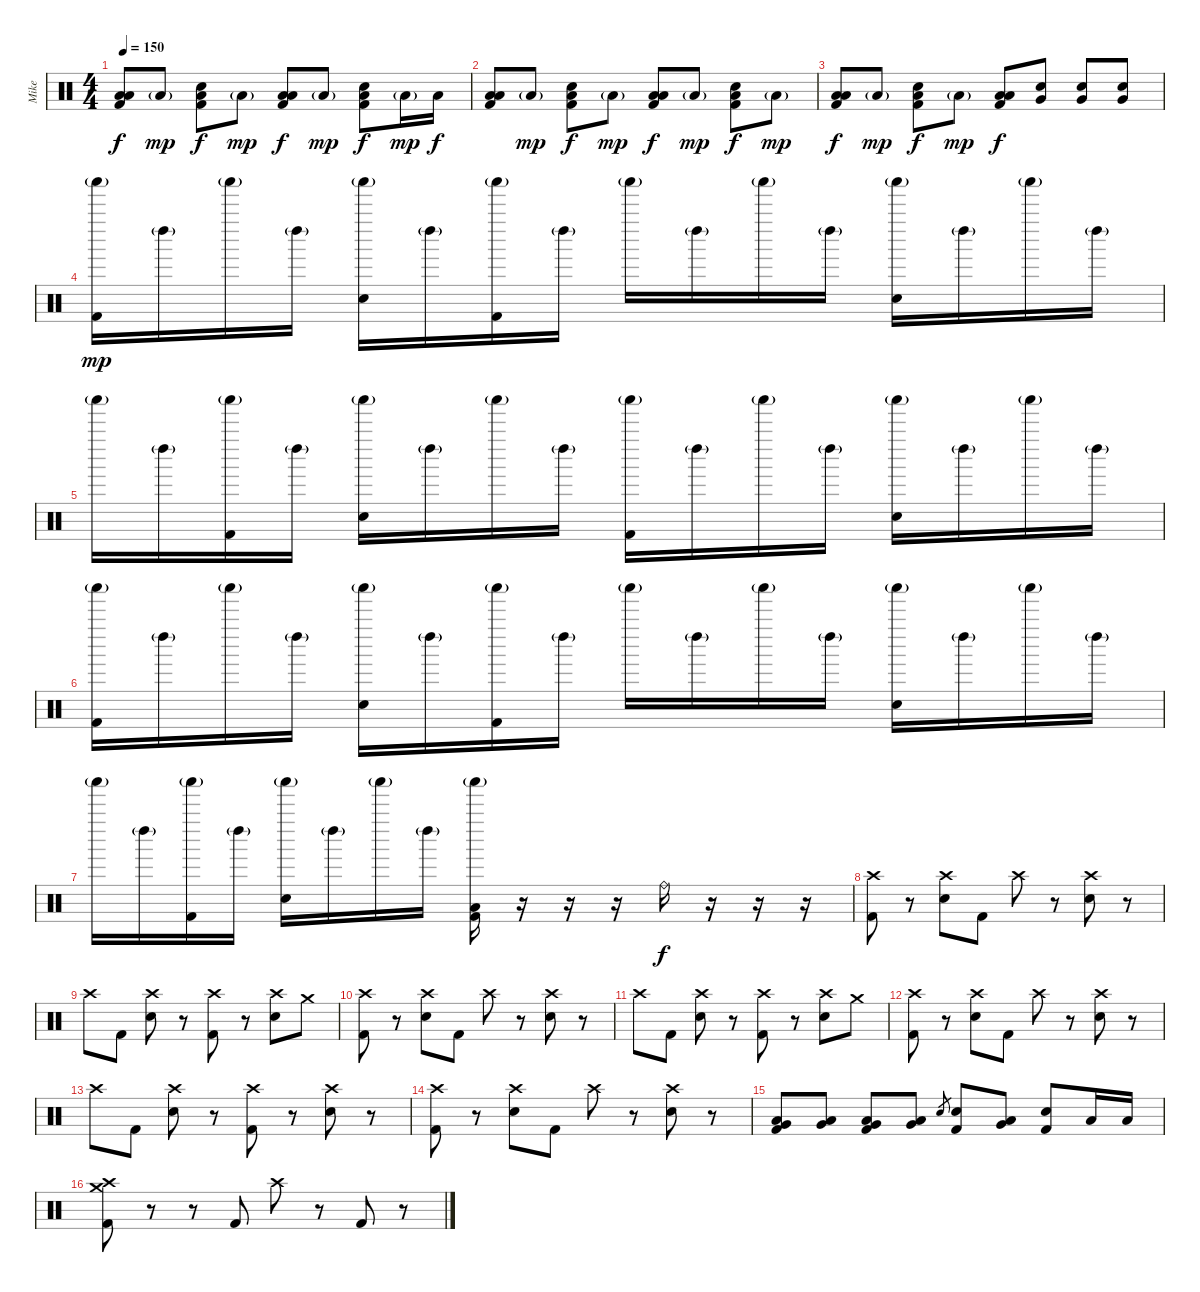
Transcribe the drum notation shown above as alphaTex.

\track ("Mike" "Mike") {instrument percussion}
\staff {score}
\articulation defaults
\ts (4 4)
\tempo 150
\clef neutral
\ks c
("Low Floor Tom (hit)" "Low Tom (hit)" "Kick (hit) 2").8{dy f} "Low Floor Tom (hit)"{g}.8{dy mp} ("Low Floor Tom (hit)" "Electric Snare (hit)" "Kick (hit) 2").8{dy f} "Low Floor Tom (hit)"{g}.8{dy mp} ("Low Floor Tom (hit)" "Low Tom (hit)" "Kick (hit) 2").8{dy f} "Low Floor Tom (hit)"{g}.8{dy mp} ("Low Floor Tom (hit)" "Electric Snare (hit)" "Kick (hit) 2").8{dy f} "Low Floor Tom (hit)"{g}.16{dy mp} "Low Floor Tom (hit)".16{dy f} |
("Low Floor Tom (hit)" "Low Tom (hit)" "Kick (hit) 2").8 "Low Floor Tom (hit)"{g}.8{dy mp} ("Low Floor Tom (hit)" "Electric Snare (hit)" "Kick (hit) 2").8{dy f} "Low Floor Tom (hit)"{g}.8{dy mp} ("Low Floor Tom (hit)" "Low Tom (hit)" "Kick (hit) 2").8{dy f} "Low Floor Tom (hit)"{g}.8{dy mp} ("Low Floor Tom (hit)" "Electric Snare (hit)" "Kick (hit) 2").8{dy f} "Low Floor Tom (hit)"{g}.8{dy mp} |
("Low Floor Tom (hit)" "Low Tom (hit)" "Kick (hit) 2").8{dy f} "Low Floor Tom (hit)"{g}.8{dy mp} ("Low Floor Tom (hit)" "Electric Snare (hit)" "Kick (hit) 2").8{dy f} "Low Floor Tom (hit)"{g}.8{dy mp} ("Low Floor Tom (hit)" "Low Tom (hit)" "Kick (hit) 2").8{dy f} ("Very Low Tom (hit)" "Electric Snare (hit)").8 ("Very Low Tom (hit)" "Electric Snare (hit)").8 ("Very Low Tom (hit)" "Electric Snare (hit)").8 |
("Shaker (hit)"{g} "Kick (hit) 2").16{dy mp} "Left Maraca (hit)"{g}.16 "Shaker (hit)"{g}.16 "Left Maraca (hit)"{g}.16 ("Shaker (hit)"{g} "Electric Snare (hit)").16 "Left Maraca (hit)"{g}.16 ("Shaker (hit)"{g} "Kick (hit) 2").16 "Left Maraca (hit)"{g}.16 "Shaker (hit)"{g}.16 "Left Maraca (hit)"{g}.16 "Shaker (hit)"{g}.16 "Left Maraca (hit)"{g}.16 ("Shaker (hit)"{g} "Electric Snare (hit)").16 "Left Maraca (hit)"{g}.16 "Shaker (hit)"{g}.16 "Left Maraca (hit)"{g}.16 |
"Shaker (hit)"{g}.16 "Left Maraca (hit)"{g}.16 ("Shaker (hit)"{g} "Kick (hit) 2").16 "Left Maraca (hit)"{g}.16 ("Shaker (hit)"{g} "Electric Snare (hit)").16 "Left Maraca (hit)"{g}.16 "Shaker (hit)"{g}.16 "Left Maraca (hit)"{g}.16 ("Shaker (hit)"{g} "Kick (hit) 2").16 "Left Maraca (hit)"{g}.16 "Shaker (hit)"{g}.16 "Left Maraca (hit)"{g}.16 ("Shaker (hit)"{g} "Electric Snare (hit)").16 "Left Maraca (hit)"{g}.16 "Shaker (hit)"{g}.16 "Left Maraca (hit)"{g}.16 |
("Shaker (hit)"{g} "Kick (hit) 2").16 "Left Maraca (hit)"{g}.16 "Shaker (hit)"{g}.16 "Left Maraca (hit)"{g}.16 ("Shaker (hit)"{g} "Electric Snare (hit)").16 "Left Maraca (hit)"{g}.16 ("Shaker (hit)"{g} "Kick (hit) 2").16 "Left Maraca (hit)"{g}.16 "Shaker (hit)"{g}.16 "Left Maraca (hit)"{g}.16 "Shaker (hit)"{g}.16 "Left Maraca (hit)"{g}.16 ("Shaker (hit)"{g} "Electric Snare (hit)").16 "Left Maraca (hit)"{g}.16 "Shaker (hit)"{g}.16 "Left Maraca (hit)"{g}.16 |
"Shaker (hit)"{g}.16 "Left Maraca (hit)"{g}.16 ("Shaker (hit)"{g} "Kick (hit) 2").16 "Left Maraca (hit)"{g}.16 ("Shaker (hit)"{g} "Electric Snare (hit)").16 "Left Maraca (hit)"{g}.16 "Shaker (hit)"{g}.16 "Left Maraca (hit)"{g}.16 ("Shaker (hit)"{g} "Low Tom (hit)" "Kick (hit) 2").16 r.16 r.16 r.16 "Ride (bell)".16{dy f} r.16 r.16 r.16 |
("Crash high (hit)" "Kick (hit) 2").8 r.8 ("Crash high (hit)" "Electric Snare (hit)").8 "Kick (hit) 2".8 "Crash high (hit)".8 r.8 ("Crash high (hit)" "Electric Snare (hit)").8 r.8 |
"Crash high (hit)".8 "Kick (hit) 2".8 ("Crash high (hit)" "Electric Snare (hit)").8 r.8 ("Crash high (hit)" "Kick (hit) 2").8 r.8 ("Crash high (hit)" "Electric Snare (hit)").8 "Crash medium (hit)".8 |
("Crash high (hit)" "Kick (hit) 2").8 r.8 ("Crash high (hit)" "Electric Snare (hit)").8 "Kick (hit) 2".8 "Crash high (hit)".8 r.8 ("Crash high (hit)" "Electric Snare (hit)").8 r.8 |
"Crash high (hit)".8 "Kick (hit) 2".8 ("Crash high (hit)" "Electric Snare (hit)").8 r.8 ("Crash high (hit)" "Kick (hit) 2").8 r.8 ("Crash high (hit)" "Electric Snare (hit)").8 "Crash medium (hit)".8 |
("Crash high (hit)" "Kick (hit) 2").8 r.8 ("Crash high (hit)" "Electric Snare (hit)").8 "Kick (hit) 2".8 "Crash high (hit)".8 r.8 ("Crash high (hit)" "Electric Snare (hit)").8 r.8 |
"Crash high (hit)".8 "Kick (hit) 2".8 ("Crash high (hit)" "Electric Snare (hit)").8 r.8 ("Crash high (hit)" "Kick (hit) 2").8 r.8 ("Crash high (hit)" "Electric Snare (hit)").8 r.8 |
("Crash high (hit)" "Kick (hit) 2").8 r.8 ("Crash high (hit)" "Electric Snare (hit)").8 "Kick (hit) 2".8 "Crash high (hit)".8 r.8 ("Crash high (hit)" "Electric Snare (hit)").8 r.8 |
("Very Low Tom (hit)" "Low Tom (hit)" "Kick (hit) 2").8 ("Very Low Tom (hit)" "Low Tom (hit)").8 ("Very Low Tom (hit)" "Low Tom (hit)" "Kick (hit) 2").8 ("Very Low Tom (hit)" "Low Tom (hit)").8 "Electric Snare (hit)".8{gr} ("Electric Snare (hit)" "Kick (hit) 2").8 ("Very Low Tom (hit)" "Low Tom (hit)").8 ("Electric Snare (hit)" "Kick (hit) 2").8 "Low Tom (hit)".16 "Low Tom (hit)".16 |
("Crash medium (hit)" "Crash high (hit)" "Kick (hit) 2").8 r.8 r.8 "Kick (hit) 2".8 "Crash high (hit)".8 r.8 "Kick (hit) 2".8 r.8
